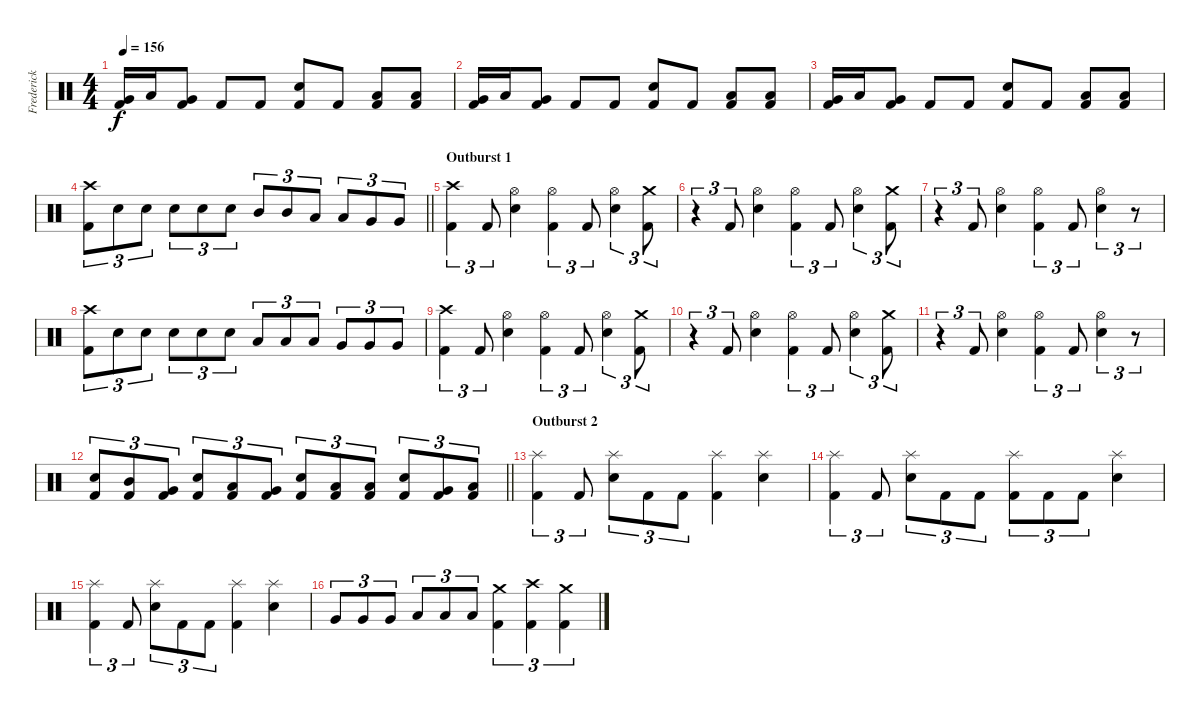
\track ("Frederick Ehmke" "Frederick ") {instrument percussion}
\staff {score}
\articulation defaults
\ts (4 4)
\tempo 156
\clef neutral
\ks c
("Kick (hit) 2" "Very Low Tom (hit)").16{dy f} "Low Tom (hit)".16 ("Kick (hit) 2" "Very Low Tom (hit)").8 "Kick (hit) 2".8 "Kick (hit) 2".8 ("Kick (hit) 2" "Electric Snare (hit)").8 "Kick (hit) 2".8 ("Kick (hit) 2" "Low Tom (hit)").8 ("Kick (hit) 2" "Low Tom (hit)").8 |
("Kick (hit) 2" "Very Low Tom (hit)").16 "Low Tom (hit)".16 ("Kick (hit) 2" "Very Low Tom (hit)").8 "Kick (hit) 2".8 "Kick (hit) 2".8 ("Kick (hit) 2" "Electric Snare (hit)").8 "Kick (hit) 2".8 ("Kick (hit) 2" "Low Tom (hit)").8 ("Kick (hit) 2" "Low Tom (hit)").8 |
("Kick (hit) 2" "Very Low Tom (hit)").16 "Low Tom (hit)".16 ("Kick (hit) 2" "Very Low Tom (hit)").8 "Kick (hit) 2".8 "Kick (hit) 2".8 ("Kick (hit) 2" "Electric Snare (hit)").8 "Kick (hit) 2".8 ("Kick (hit) 2" "Low Tom (hit)").8 ("Kick (hit) 2" "Low Tom (hit)").8 |
\barLineRight lightlight
("Crash high (hit)" "Kick (hit) 2").8{tu (3 2)} "Electric Snare (hit)".8{tu (3 2)} "Electric Snare (hit)".8{tu (3 2)} "Electric Snare (hit)".8{tu (3 2)} "Electric Snare (hit)".8{tu (3 2)} "Electric Snare (hit)".8{tu (3 2)} "Mid Tom (hit)".8{tu (3 2)} "Mid Tom (hit)".8{tu (3 2)} "Low Tom (hit)".8{tu (3 2)} "Low Tom (hit)".8{tu (3 2)} "Very Low Tom (hit)".8{tu (3 2)} "Very Low Tom (hit)".8{tu (3 2)} |
\section ("" "Outburst 1")
("Crash high (hit)" "Kick (hit) 2").4{tu (3 2)} "Kick (hit) 2".8{tu (3 2)} ("Hi-Hat (open)" "Electric Snare (hit)").4 ("Hi-Hat (open)" "Kick (hit) 2").4{tu (3 2)} "Kick (hit) 2".8{tu (3 2)} ("Hi-Hat (open)" "Electric Snare (hit)").4{tu (3 2)} ("Crash medium (hit)" "Kick (hit) 2").8{tu (3 2)} |
r.4{tu (3 2)} "Kick (hit) 2".8{tu (3 2)} ("Hi-Hat (open)" "Electric Snare (hit)").4 ("Hi-Hat (open)" "Kick (hit) 2").4{tu (3 2)} "Kick (hit) 2".8{tu (3 2)} ("Hi-Hat (open)" "Electric Snare (hit)").4{tu (3 2)} ("Crash medium (hit)" "Kick (hit) 2").8{tu (3 2)} |
r.4{tu (3 2)} "Kick (hit) 2".8{tu (3 2)} ("Hi-Hat (open)" "Electric Snare (hit)").4 ("Hi-Hat (open)" "Kick (hit) 2").4{tu (3 2)} "Kick (hit) 2".8{tu (3 2)} ("Hi-Hat (open)" "Electric Snare (hit)").4{tu (3 2)} r.8{tu (3 2)} |
("Crash high (hit)" "Kick (hit) 2").8{tu (3 2)} "Electric Snare (hit)".8{tu (3 2)} "Electric Snare (hit)".8{tu (3 2)} "Electric Snare (hit)".8{tu (3 2)} "Electric Snare (hit)".8{tu (3 2)} "Electric Snare (hit)".8{tu (3 2)} "Low Tom (hit)".8{tu (3 2)} "Low Tom (hit)".8{tu (3 2)} "Low Tom (hit)".8{tu (3 2)} "Very Low Tom (hit)".8{tu (3 2)} "Very Low Tom (hit)".8{tu (3 2)} "Very Low Tom (hit)".8{tu (3 2)} |
("Crash high (hit)" "Kick (hit) 2").4{tu (3 2)} "Kick (hit) 2".8{tu (3 2)} ("Hi-Hat (open)" "Electric Snare (hit)").4 ("Hi-Hat (open)" "Kick (hit) 2").4{tu (3 2)} "Kick (hit) 2".8{tu (3 2)} ("Hi-Hat (open)" "Electric Snare (hit)").4{tu (3 2)} ("Crash medium (hit)" "Kick (hit) 2").8{tu (3 2)} |
r.4{tu (3 2)} "Kick (hit) 2".8{tu (3 2)} ("Hi-Hat (open)" "Electric Snare (hit)").4 ("Hi-Hat (open)" "Kick (hit) 2").4{tu (3 2)} "Kick (hit) 2".8{tu (3 2)} ("Hi-Hat (open)" "Electric Snare (hit)").4{tu (3 2)} ("Crash medium (hit)" "Kick (hit) 2").8{tu (3 2)} |
r.4{tu (3 2)} "Kick (hit) 2".8{tu (3 2)} ("Hi-Hat (open)" "Electric Snare (hit)").4 ("Hi-Hat (open)" "Kick (hit) 2").4{tu (3 2)} "Kick (hit) 2".8{tu (3 2)} ("Hi-Hat (open)" "Electric Snare (hit)").4{tu (3 2)} r.8{tu (3 2)} |
\barLineRight lightlight
("Kick (hit) 2" "Electric Snare (hit)").8{tu (3 2)} ("Kick (hit) 2" "Mid Tom (hit)").8{tu (3 2)} ("Kick (hit) 2" "Very Low Tom (hit)").8{tu (3 2)} ("Kick (hit) 2" "Electric Snare (hit)").8{tu (3 2)} ("Kick (hit) 2" "Low Tom (hit)").8{tu (3 2)} ("Kick (hit) 2" "Very Low Tom (hit)").8{tu (3 2)} ("Kick (hit) 2" "Electric Snare (hit)").8{tu (3 2)} ("Kick (hit) 2" "Low Tom (hit)").8{tu (3 2)} ("Kick (hit) 2" "Low Floor Tom (hit)").8{tu (3 2)} ("Kick (hit) 2" "Electric Snare (hit)").8{tu (3 2)} ("Kick (hit) 2" "Very Low Tom (hit)").8{tu (3 2)} ("Kick (hit) 2" "Low Floor Tom (hit)").8{tu (3 2)} |
\section ("" "Outburst 2")
("Splash (hit)" "Kick (hit) 2").4{tu (3 2)} "Kick (hit) 2".8{tu (3 2)} ("Splash (hit)" "Electric Snare (hit)").8{tu (3 2)} "Kick (hit) 2".8{tu (3 2)} "Kick (hit) 2".8{tu (3 2)} ("Splash (hit)" "Kick (hit) 2").4 ("Splash (hit)" "Electric Snare (hit)").4 |
("Splash (hit)" "Kick (hit) 2").4{tu (3 2)} "Kick (hit) 2".8{tu (3 2)} ("Splash (hit)" "Electric Snare (hit)").8{tu (3 2)} "Kick (hit) 2".8{tu (3 2)} "Kick (hit) 2".8{tu (3 2)} ("Splash (hit)" "Kick (hit) 2").8{tu (3 2)} "Kick (hit) 2".8{tu (3 2)} "Kick (hit) 2".8{tu (3 2)} ("Splash (hit)" "Electric Snare (hit)").4 |
("Splash (hit)" "Kick (hit) 2").4{tu (3 2)} "Kick (hit) 2".8{tu (3 2)} ("Splash (hit)" "Electric Snare (hit)").8{tu (3 2)} "Kick (hit) 2".8{tu (3 2)} "Kick (hit) 2".8{tu (3 2)} ("Splash (hit)" "Kick (hit) 2").4 ("Splash (hit)" "Electric Snare (hit)").4 |
"Very Low Tom (hit)".8{tu (3 2)} "Very Low Tom (hit)".8{tu (3 2)} "Very Low Tom (hit)".8{tu (3 2)} "Low Floor Tom (hit)".8{tu (3 2)} "Low Floor Tom (hit)".8{tu (3 2)} "Low Floor Tom (hit)".8{tu (3 2)} ("Crash medium (hit)" "Kick (hit) 2").4{tu (3 2)} ("Crash high (hit)" "Kick (hit) 2").4{tu (3 2)} ("Crash medium (hit)" "Kick (hit) 2").4{tu (3 2)}
